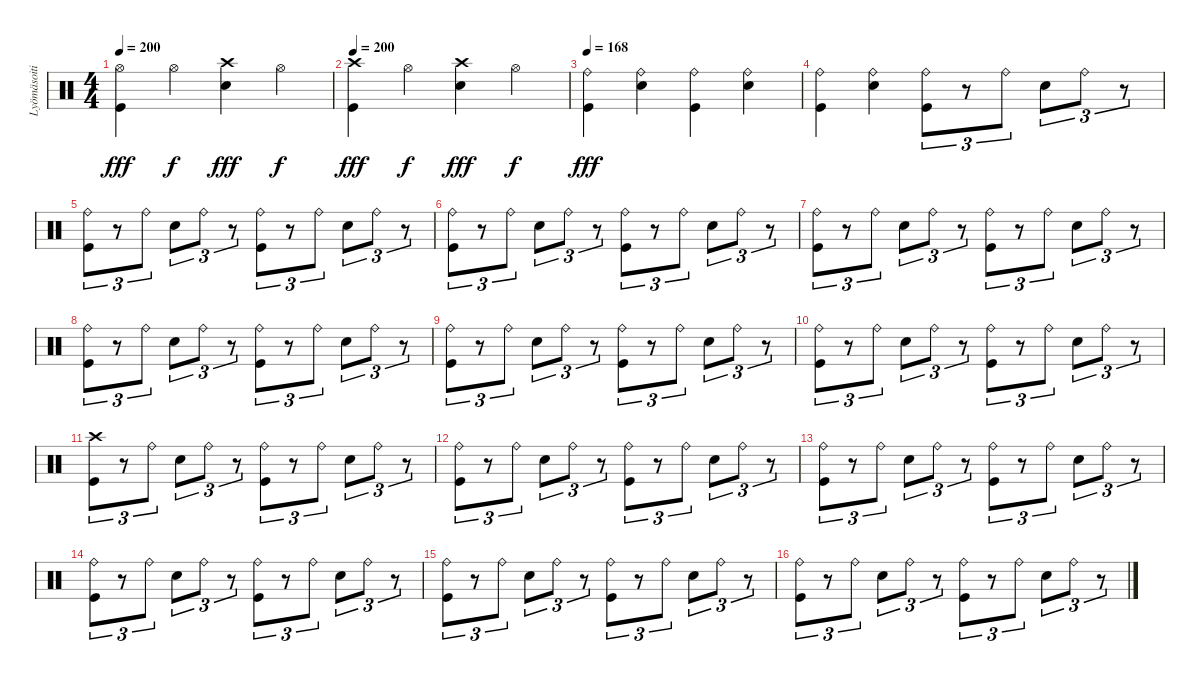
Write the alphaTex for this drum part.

\track ("Lyömäsoitin" "Lyömäsoiti") {instrument percussion}
\staff {score}
\articulation defaults
\ts (4 4)
\tempo 200
\clef neutral
\ks c
("Hi-Hat (open)" "Kick (hit)").4{dy fff} "Hi-Hat (open)".4{dy f} ("Crash high (hit)" "Electric Snare (hit)").4{dy fff} "Hi-Hat (open)".4{dy f} |
\tempo 200
("Crash high (hit)" "Kick (hit)").4{dy fff} "Hi-Hat (open)".4{dy f} ("Crash high (hit)" "Electric Snare (hit)").4{dy fff} "Hi-Hat (open)".4{dy f} |
\tempo 168
("Ride (bell)" "Kick (hit)").4{dy fff} ("Ride (bell)" "Electric Snare (hit)").4 ("Ride (bell)" "Kick (hit)").4 ("Ride (bell)" "Electric Snare (hit)").4 |
("Ride (bell)" "Kick (hit)").4 ("Ride (bell)" "Electric Snare (hit)").4 ("Ride (bell)" "Kick (hit)").8{tu (3 2)} r.8{tu (3 2)} "Ride (bell)".8{tu (3 2)} "Electric Snare (hit)".8{tu (3 2)} "Ride (bell)".8{tu (3 2)} r.8{tu (3 2)} |
("Ride (bell)" "Kick (hit)").8{tu (3 2)} r.8{tu (3 2)} "Ride (bell)".8{tu (3 2)} "Electric Snare (hit)".8{tu (3 2)} "Ride (bell)".8{tu (3 2)} r.8{tu (3 2)} ("Ride (bell)" "Kick (hit)").8{tu (3 2)} r.8{tu (3 2)} "Ride (bell)".8{tu (3 2)} "Electric Snare (hit)".8{tu (3 2)} "Ride (bell)".8{tu (3 2)} r.8{tu (3 2)} |
("Ride (bell)" "Kick (hit)").8{tu (3 2)} r.8{tu (3 2)} "Ride (bell)".8{tu (3 2)} "Electric Snare (hit)".8{tu (3 2)} "Ride (bell)".8{tu (3 2)} r.8{tu (3 2)} ("Ride (bell)" "Kick (hit)").8{tu (3 2)} r.8{tu (3 2)} "Ride (bell)".8{tu (3 2)} "Electric Snare (hit)".8{tu (3 2)} "Ride (bell)".8{tu (3 2)} r.8{tu (3 2)} |
("Ride (bell)" "Kick (hit)").8{tu (3 2)} r.8{tu (3 2)} "Ride (bell)".8{tu (3 2)} "Electric Snare (hit)".8{tu (3 2)} "Ride (bell)".8{tu (3 2)} r.8{tu (3 2)} ("Ride (bell)" "Kick (hit)").8{tu (3 2)} r.8{tu (3 2)} "Ride (bell)".8{tu (3 2)} "Electric Snare (hit)".8{tu (3 2)} "Ride (bell)".8{tu (3 2)} r.8{tu (3 2)} |
("Ride (bell)" "Kick (hit)").8{tu (3 2)} r.8{tu (3 2)} "Ride (bell)".8{tu (3 2)} "Electric Snare (hit)".8{tu (3 2)} "Ride (bell)".8{tu (3 2)} r.8{tu (3 2)} ("Ride (bell)" "Kick (hit)").8{tu (3 2)} r.8{tu (3 2)} "Ride (bell)".8{tu (3 2)} "Electric Snare (hit)".8{tu (3 2)} "Ride (bell)".8{tu (3 2)} r.8{tu (3 2)} |
("Ride (bell)" "Kick (hit)").8{tu (3 2)} r.8{tu (3 2)} "Ride (bell)".8{tu (3 2)} "Electric Snare (hit)".8{tu (3 2)} "Ride (bell)".8{tu (3 2)} r.8{tu (3 2)} ("Ride (bell)" "Kick (hit)").8{tu (3 2)} r.8{tu (3 2)} "Ride (bell)".8{tu (3 2)} "Electric Snare (hit)".8{tu (3 2)} "Ride (bell)".8{tu (3 2)} r.8{tu (3 2)} |
("Ride (bell)" "Kick (hit)").8{tu (3 2)} r.8{tu (3 2)} "Ride (bell)".8{tu (3 2)} "Electric Snare (hit)".8{tu (3 2)} "Ride (bell)".8{tu (3 2)} r.8{tu (3 2)} ("Ride (bell)" "Kick (hit)").8{tu (3 2)} r.8{tu (3 2)} "Ride (bell)".8{tu (3 2)} "Electric Snare (hit)".8{tu (3 2)} "Ride (bell)".8{tu (3 2)} r.8{tu (3 2)} |
("Crash high (hit)" "Kick (hit)").8{tu (3 2)} r.8{tu (3 2)} "Ride (bell)".8{tu (3 2)} "Electric Snare (hit)".8{tu (3 2)} "Ride (bell)".8{tu (3 2)} r.8{tu (3 2)} ("Ride (bell)" "Kick (hit)").8{tu (3 2)} r.8{tu (3 2)} "Ride (bell)".8{tu (3 2)} "Electric Snare (hit)".8{tu (3 2)} "Ride (bell)".8{tu (3 2)} r.8{tu (3 2)} |
("Ride (bell)" "Kick (hit)").8{tu (3 2)} r.8{tu (3 2)} "Ride (bell)".8{tu (3 2)} "Electric Snare (hit)".8{tu (3 2)} "Ride (bell)".8{tu (3 2)} r.8{tu (3 2)} ("Ride (bell)" "Kick (hit)").8{tu (3 2)} r.8{tu (3 2)} "Ride (bell)".8{tu (3 2)} "Electric Snare (hit)".8{tu (3 2)} "Ride (bell)".8{tu (3 2)} r.8{tu (3 2)} |
("Ride (bell)" "Kick (hit)").8{tu (3 2)} r.8{tu (3 2)} "Ride (bell)".8{tu (3 2)} "Electric Snare (hit)".8{tu (3 2)} "Ride (bell)".8{tu (3 2)} r.8{tu (3 2)} ("Ride (bell)" "Kick (hit)").8{tu (3 2)} r.8{tu (3 2)} "Ride (bell)".8{tu (3 2)} "Electric Snare (hit)".8{tu (3 2)} "Ride (bell)".8{tu (3 2)} r.8{tu (3 2)} |
("Ride (bell)" "Kick (hit)").8{tu (3 2)} r.8{tu (3 2)} "Ride (bell)".8{tu (3 2)} "Electric Snare (hit)".8{tu (3 2)} "Ride (bell)".8{tu (3 2)} r.8{tu (3 2)} ("Ride (bell)" "Kick (hit)").8{tu (3 2)} r.8{tu (3 2)} "Ride (bell)".8{tu (3 2)} "Electric Snare (hit)".8{tu (3 2)} "Ride (bell)".8{tu (3 2)} r.8{tu (3 2)} |
("Ride (bell)" "Kick (hit)").8{tu (3 2)} r.8{tu (3 2)} "Ride (bell)".8{tu (3 2)} "Electric Snare (hit)".8{tu (3 2)} "Ride (bell)".8{tu (3 2)} r.8{tu (3 2)} ("Ride (bell)" "Kick (hit)").8{tu (3 2)} r.8{tu (3 2)} "Ride (bell)".8{tu (3 2)} "Electric Snare (hit)".8{tu (3 2)} "Ride (bell)".8{tu (3 2)} r.8{tu (3 2)} |
("Ride (bell)" "Kick (hit)").8{tu (3 2)} r.8{tu (3 2)} "Ride (bell)".8{tu (3 2)} "Electric Snare (hit)".8{tu (3 2)} "Ride (bell)".8{tu (3 2)} r.8{tu (3 2)} ("Ride (bell)" "Kick (hit)").8{tu (3 2)} r.8{tu (3 2)} "Ride (bell)".8{tu (3 2)} "Electric Snare (hit)".8{tu (3 2)} "Ride (bell)".8{tu (3 2)} r.8{tu (3 2)}
